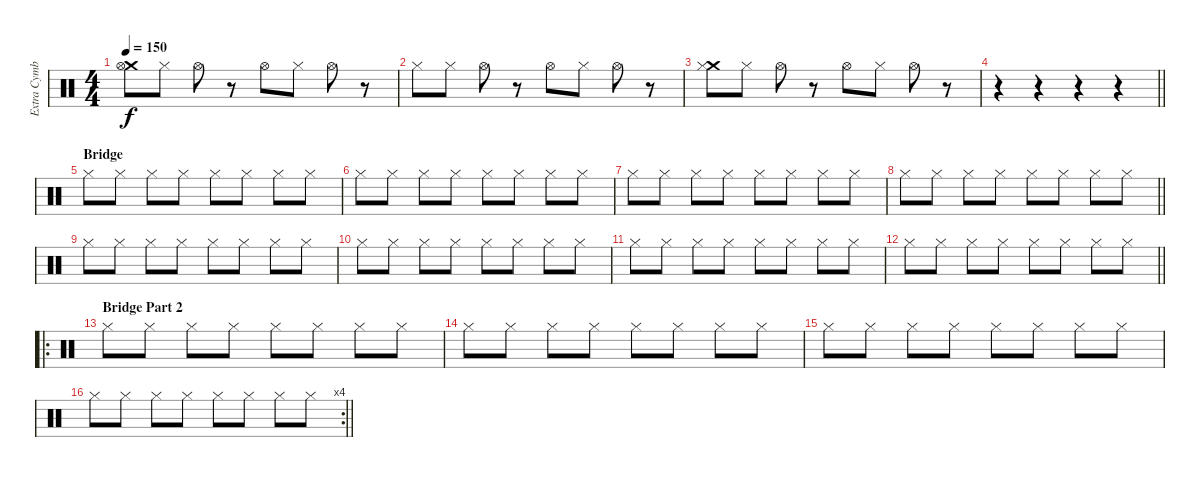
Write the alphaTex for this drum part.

\track ("Extra Cymbals" "Extra Cymb") {instrument percussion bank 255}
\staff {score}
\articulation defaults
\ts (4 4)
\tempo 150
\clef neutral
\ks c
("Crash medium (hit)" "Hi-Hat (open)").8{dy f} "Hi-Hat (closed)".8 "Hi-Hat (open)".8 r.8 "Hi-Hat (open)".8 "Hi-Hat (closed)".8 "Hi-Hat (open)".8 r.8 |
"Hi-Hat (closed)".8 "Hi-Hat (closed)".8 "Hi-Hat (open)".8 r.8 "Hi-Hat (open)".8 "Hi-Hat (closed)".8 "Hi-Hat (open)".8 r.8 |
("Crash medium (hit)" "Hi-Hat (closed)").8 "Hi-Hat (closed)".8 "Hi-Hat (open)".8 r.8 "Hi-Hat (open)".8 "Hi-Hat (closed)".8 "Hi-Hat (open)".8 r.8 |
\barLineRight lightlight
r.4 r.4 r.4 r.4 |
\section ("" "Bridge")
"Hi-Hat (closed)".8 "Hi-Hat (closed)".8 "Hi-Hat (closed)".8 "Hi-Hat (closed)".8 "Hi-Hat (closed)".8 "Hi-Hat (closed)".8 "Hi-Hat (closed)".8 "Hi-Hat (closed)".8 |
"Hi-Hat (closed)".8 "Hi-Hat (closed)".8 "Hi-Hat (closed)".8 "Hi-Hat (closed)".8 "Hi-Hat (closed)".8 "Hi-Hat (closed)".8 "Hi-Hat (closed)".8 "Hi-Hat (closed)".8 |
"Hi-Hat (closed)".8 "Hi-Hat (closed)".8 "Hi-Hat (closed)".8 "Hi-Hat (closed)".8 "Hi-Hat (closed)".8 "Hi-Hat (closed)".8 "Hi-Hat (closed)".8 "Hi-Hat (closed)".8 |
\barLineRight lightlight "Hi-Hat (closed)".8 "Hi-Hat (closed)".8 "Hi-Hat (closed)".8 "Hi-Hat (closed)".8 "Hi-Hat (closed)".8 "Hi-Hat (closed)".8 "Hi-Hat (closed)".8 "Hi-Hat (closed)".8
|
"Hi-Hat (closed)".8 "Hi-Hat (closed)".8 "Hi-Hat (closed)".8 "Hi-Hat (closed)".8 "Hi-Hat (closed)".8 "Hi-Hat (closed)".8 "Hi-Hat (closed)".8 "Hi-Hat (closed)".8 |
"Hi-Hat (closed)".8 "Hi-Hat (closed)".8 "Hi-Hat (closed)".8 "Hi-Hat (closed)".8 "Hi-Hat (closed)".8 "Hi-Hat (closed)".8 "Hi-Hat (closed)".8 "Hi-Hat (closed)".8 |
"Hi-Hat (closed)".8 "Hi-Hat (closed)".8 "Hi-Hat (closed)".8 "Hi-Hat (closed)".8 "Hi-Hat (closed)".8 "Hi-Hat (closed)".8 "Hi-Hat (closed)".8 "Hi-Hat (closed)".8 |
\barLineRight lightlight "Hi-Hat (closed)".8 "Hi-Hat (closed)".8 "Hi-Hat (closed)".8 "Hi-Hat (closed)".8 "Hi-Hat (closed)".8 "Hi-Hat (closed)".8 "Hi-Hat (closed)".8 "Hi-Hat (closed)".8
|
\ro
\section ("" "Bridge Part 2")
"Hi-Hat (closed)".8 "Hi-Hat (closed)".8 "Hi-Hat (closed)".8 "Hi-Hat (closed)".8 "Hi-Hat (closed)".8 "Hi-Hat (closed)".8 "Hi-Hat (closed)".8 "Hi-Hat (closed)".8 |
"Hi-Hat (closed)".8 "Hi-Hat (closed)".8 "Hi-Hat (closed)".8 "Hi-Hat (closed)".8 "Hi-Hat (closed)".8 "Hi-Hat (closed)".8 "Hi-Hat (closed)".8 "Hi-Hat (closed)".8 |
"Hi-Hat (closed)".8 "Hi-Hat (closed)".8 "Hi-Hat (closed)".8 "Hi-Hat (closed)".8 "Hi-Hat (closed)".8 "Hi-Hat (closed)".8 "Hi-Hat (closed)".8 "Hi-Hat (closed)".8 |
\rc 4
\barLineRight lightlight "Hi-Hat (closed)".8 "Hi-Hat (closed)".8 "Hi-Hat (closed)".8 "Hi-Hat (closed)".8 "Hi-Hat (closed)".8 "Hi-Hat (closed)".8 "Hi-Hat (closed)".8 "Hi-Hat (closed)".8
